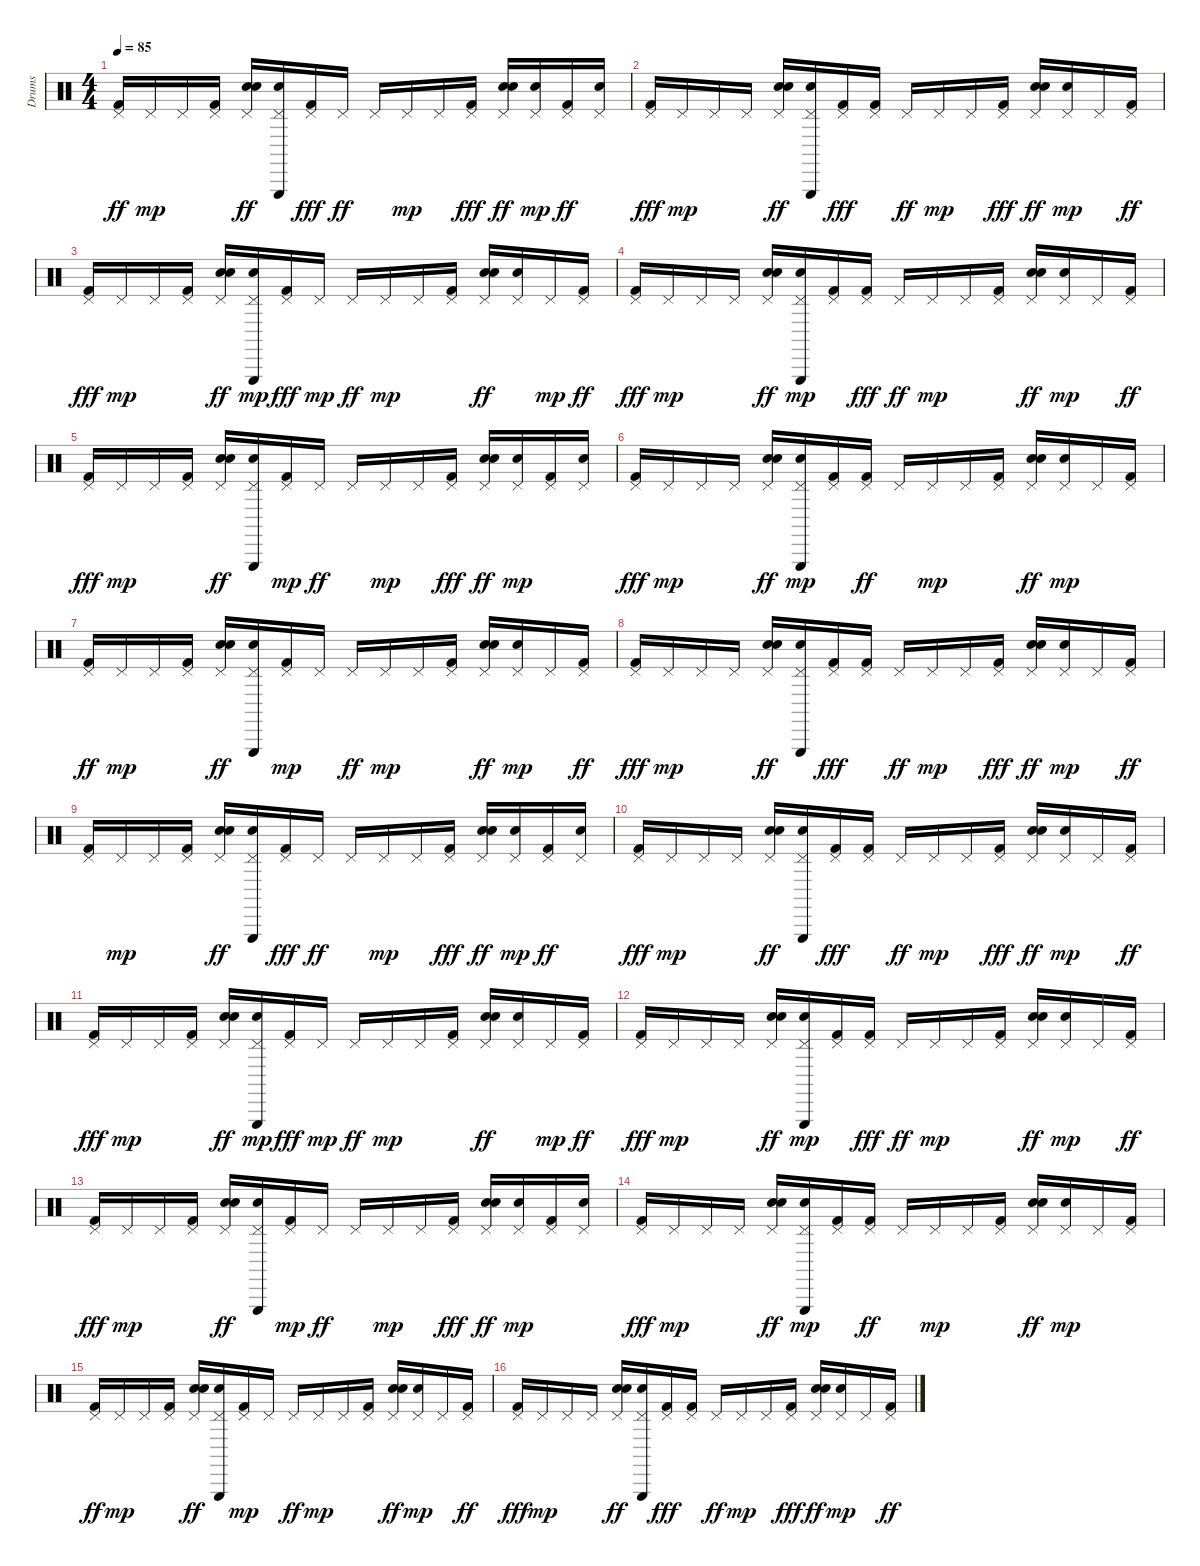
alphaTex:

\track ("Drums" "Drums") {instrument percussion}
\staff {score}
\articulation defaults
\ts (4 4)
\tempo 85
\clef neutral
\ks c
("Kick (hit) 2" "Pedal Hi-Hat (hit)").16{dy ff} "Pedal Hi-Hat (hit)".16{dy mp} "Pedal Hi-Hat (hit)".16 ("Kick (hit) 2" "Pedal Hi-Hat (hit)").16 ("Pedal Hi-Hat (hit)" "Snare (hit) 2" "Hand Clap (hit)").16{dy ff} ("Triangle (hit)" "Pedal Hi-Hat (hit)" "Snare (hit) 2").16 ("Pedal Hi-Hat (hit)" "Kick (hit) 2").16{dy fff} "Pedal Hi-Hat (hit)".16{dy ff} "Pedal Hi-Hat (hit)".16 "Pedal Hi-Hat (hit)".16{dy mp} "Pedal Hi-Hat (hit)".16 ("Pedal Hi-Hat (hit)" "Kick (hit) 2").16{dy fff} ("Hand Clap (hit)" "Snare (hit) 2" "Pedal Hi-Hat (hit)").16{dy ff} ("Snare (hit) 2" "Pedal Hi-Hat (hit)").16{dy mp} ("Pedal Hi-Hat (hit)" "Kick (hit) 2").16{dy ff} ("Pedal Hi-Hat (hit)" "Snare (hit) 2").16 |
("Pedal Hi-Hat (hit)" "Kick (hit) 2").16{dy fff} "Pedal Hi-Hat (hit)".16{dy mp} "Pedal Hi-Hat (hit)".16 "Pedal Hi-Hat (hit)".16 ("Pedal Hi-Hat (hit)" "Hand Clap (hit)" "Snare (hit) 2").16{dy ff} ("Pedal Hi-Hat (hit)" "Triangle (hit)" "Snare (hit) 2").16 ("Pedal Hi-Hat (hit)" "Kick (hit) 2").16{dy fff} ("Pedal Hi-Hat (hit)" "Kick (hit) 2").16 "Pedal Hi-Hat (hit)".16{dy ff} "Pedal Hi-Hat (hit)".16{dy mp} "Pedal Hi-Hat (hit)".16 ("Pedal Hi-Hat (hit)" "Kick (hit) 2").16{dy fff} ("Snare (hit) 2" "Pedal Hi-Hat (hit)" "Hand Clap (hit)").16{dy ff} ("Snare (hit) 2" "Pedal Hi-Hat (hit)").16{dy mp} "Pedal Hi-Hat (hit)".16 ("Pedal Hi-Hat (hit)" "Kick (hit) 2").16{dy ff} |
("Pedal Hi-Hat (hit)" "Kick (hit) 2").16{dy fff} "Pedal Hi-Hat (hit)".16{dy mp} "Pedal Hi-Hat (hit)".16 ("Kick (hit) 2" "Pedal Hi-Hat (hit)").16 ("Hand Clap (hit)" "Pedal Hi-Hat (hit)" "Snare (hit) 2").16{dy ff} ("Triangle (hit)" "Snare (hit) 2" "Pedal Hi-Hat (hit)").16{dy mp} ("Pedal Hi-Hat (hit)" "Kick (hit) 2").16{dy fff} "Pedal Hi-Hat (hit)".16{dy mp} "Pedal Hi-Hat (hit)".16{dy ff} "Pedal Hi-Hat (hit)".16{dy mp} "Pedal Hi-Hat (hit)".16 ("Kick (hit) 2" "Pedal Hi-Hat (hit)").16 ("Hand Clap (hit)" "Pedal Hi-Hat (hit)" "Snare (hit) 2").16{dy ff} ("Pedal Hi-Hat (hit)" "Snare (hit) 2").16 "Pedal Hi-Hat (hit)".16{dy mp} ("Pedal Hi-Hat (hit)" "Kick (hit) 2").16{dy ff} |
("Pedal Hi-Hat (hit)" "Kick (hit) 2").16{dy fff} "Pedal Hi-Hat (hit)".16{dy mp} "Pedal Hi-Hat (hit)".16 "Pedal Hi-Hat (hit)".16 ("Snare (hit) 2" "Pedal Hi-Hat (hit)" "Hand Clap (hit)").16{dy ff} ("Snare (hit) 2" "Pedal Hi-Hat (hit)" "Triangle (hit)").16{dy mp} ("Kick (hit) 2" "Pedal Hi-Hat (hit)").16 ("Pedal Hi-Hat (hit)" "Kick (hit) 2").16{dy fff} "Pedal Hi-Hat (hit)".16{dy ff} "Pedal Hi-Hat (hit)".16{dy mp} "Pedal Hi-Hat (hit)".16 ("Kick (hit) 2" "Pedal Hi-Hat (hit)").16 ("Pedal Hi-Hat (hit)" "Snare (hit) 2" "Hand Clap (hit)").16{dy ff} ("Snare (hit) 2" "Pedal Hi-Hat (hit)").16{dy mp} "Pedal Hi-Hat (hit)".16 ("Pedal Hi-Hat (hit)" "Kick (hit) 2").16{dy ff} |
("Pedal Hi-Hat (hit)" "Kick (hit) 2").16{dy fff} "Pedal Hi-Hat (hit)".16{dy mp} "Pedal Hi-Hat (hit)".16 ("Kick (hit) 2" "Pedal Hi-Hat (hit)").16 ("Snare (hit) 2" "Pedal Hi-Hat (hit)" "Hand Clap (hit)").16{dy ff} ("Triangle (hit)" "Pedal Hi-Hat (hit)" "Snare (hit) 2").16 ("Kick (hit) 2" "Pedal Hi-Hat (hit)").16{dy mp} "Pedal Hi-Hat (hit)".16{dy ff} "Pedal Hi-Hat (hit)".16 "Pedal Hi-Hat (hit)".16{dy mp} "Pedal Hi-Hat (hit)".16 ("Pedal Hi-Hat (hit)" "Kick (hit) 2").16{dy fff} ("Hand Clap (hit)" "Snare (hit) 2" "Pedal Hi-Hat (hit)").16{dy ff} ("Snare (hit) 2" "Pedal Hi-Hat (hit)").16{dy mp} ("Kick (hit) 2" "Pedal Hi-Hat (hit)").16 ("Snare (hit) 2" "Pedal Hi-Hat (hit)").16 |
("Pedal Hi-Hat (hit)" "Kick (hit) 2").16{dy fff} "Pedal Hi-Hat (hit)".16{dy mp} "Pedal Hi-Hat (hit)".16 "Pedal Hi-Hat (hit)".16 ("Snare (hit) 2" "Hand Clap (hit)" "Pedal Hi-Hat (hit)").16{dy ff} ("Snare (hit) 2" "Triangle (hit)" "Pedal Hi-Hat (hit)").16{dy mp} ("Kick (hit) 2" "Pedal Hi-Hat (hit)").16 ("Kick (hit) 2" "Pedal Hi-Hat (hit)").16{dy ff} "Pedal Hi-Hat (hit)".16 "Pedal Hi-Hat (hit)".16{dy mp} "Pedal Hi-Hat (hit)".16 ("Kick (hit) 2" "Pedal Hi-Hat (hit)").16 ("Hand Clap (hit)" "Snare (hit) 2" "Pedal Hi-Hat (hit)").16{dy ff} ("Snare (hit) 2" "Pedal Hi-Hat (hit)").16{dy mp} "Pedal Hi-Hat (hit)".16 ("Kick (hit) 2" "Pedal Hi-Hat (hit)").16 |
("Kick (hit) 2" "Pedal Hi-Hat (hit)").16{dy ff} "Pedal Hi-Hat (hit)".16{dy mp} "Pedal Hi-Hat (hit)".16 ("Kick (hit) 2" "Pedal Hi-Hat (hit)").16 ("Pedal Hi-Hat (hit)" "Hand Clap (hit)" "Snare (hit) 2").16{dy ff} ("Pedal Hi-Hat (hit)" "Triangle (hit)" "Snare (hit) 2").16 ("Kick (hit) 2" "Pedal Hi-Hat (hit)").16{dy mp} "Pedal Hi-Hat (hit)".16 "Pedal Hi-Hat (hit)".16{dy ff} "Pedal Hi-Hat (hit)".16{dy mp} "Pedal Hi-Hat (hit)".16 ("Kick (hit) 2" "Pedal Hi-Hat (hit)").16 ("Hand Clap (hit)" "Snare (hit) 2" "Pedal Hi-Hat (hit)").16{dy ff} ("Snare (hit) 2" "Pedal Hi-Hat (hit)").16{dy mp} "Pedal Hi-Hat (hit)".16 ("Pedal Hi-Hat (hit)" "Kick (hit) 2").16{dy ff} |
("Pedal Hi-Hat (hit)" "Kick (hit) 2").16{dy fff} "Pedal Hi-Hat (hit)".16{dy mp} "Pedal Hi-Hat (hit)".16 "Pedal Hi-Hat (hit)".16 ("Pedal Hi-Hat (hit)" "Hand Clap (hit)" "Snare (hit) 2").16{dy ff} ("Triangle (hit)" "Pedal Hi-Hat (hit)" "Snare (hit) 2").16 ("Pedal Hi-Hat (hit)" "Kick (hit) 2").16{dy fff} ("Pedal Hi-Hat (hit)" "Kick (hit) 2").16 "Pedal Hi-Hat (hit)".16{dy ff} "Pedal Hi-Hat (hit)".16{dy mp} "Pedal Hi-Hat (hit)".16 ("Pedal Hi-Hat (hit)" "Kick (hit) 2").16{dy fff} ("Snare (hit) 2" "Pedal Hi-Hat (hit)" "Hand Clap (hit)").16{dy ff} ("Snare (hit) 2" "Pedal Hi-Hat (hit)").16{dy mp} "Pedal Hi-Hat (hit)".16 ("Pedal Hi-Hat (hit)" "Kick (hit) 2").16{dy ff} |
("Kick (hit) 2" "Pedal Hi-Hat (hit)").16 "Pedal Hi-Hat (hit)".16{dy mp} "Pedal Hi-Hat (hit)".16 ("Kick (hit) 2" "Pedal Hi-Hat (hit)").16 ("Pedal Hi-Hat (hit)" "Snare (hit) 2" "Hand Clap (hit)").16{dy ff} ("Triangle (hit)" "Pedal Hi-Hat (hit)" "Snare (hit) 2").16 ("Pedal Hi-Hat (hit)" "Kick (hit) 2").16{dy fff} "Pedal Hi-Hat (hit)".16{dy ff} "Pedal Hi-Hat (hit)".16 "Pedal Hi-Hat (hit)".16{dy mp} "Pedal Hi-Hat (hit)".16 ("Pedal Hi-Hat (hit)" "Kick (hit) 2").16{dy fff} ("Hand Clap (hit)" "Snare (hit) 2" "Pedal Hi-Hat (hit)").16{dy ff} ("Snare (hit) 2" "Pedal Hi-Hat (hit)").16{dy mp} ("Pedal Hi-Hat (hit)" "Kick (hit) 2").16{dy ff} ("Pedal Hi-Hat (hit)" "Snare (hit) 2").16 |
("Pedal Hi-Hat (hit)" "Kick (hit) 2").16{dy fff} "Pedal Hi-Hat (hit)".16{dy mp} "Pedal Hi-Hat (hit)".16 "Pedal Hi-Hat (hit)".16 ("Pedal Hi-Hat (hit)" "Hand Clap (hit)" "Snare (hit) 2").16{dy ff} ("Pedal Hi-Hat (hit)" "Triangle (hit)" "Snare (hit) 2").16 ("Pedal Hi-Hat (hit)" "Kick (hit) 2").16{dy fff} ("Pedal Hi-Hat (hit)" "Kick (hit) 2").16 "Pedal Hi-Hat (hit)".16{dy ff} "Pedal Hi-Hat (hit)".16{dy mp} "Pedal Hi-Hat (hit)".16 ("Pedal Hi-Hat (hit)" "Kick (hit) 2").16{dy fff} ("Snare (hit) 2" "Pedal Hi-Hat (hit)" "Hand Clap (hit)").16{dy ff} ("Snare (hit) 2" "Pedal Hi-Hat (hit)").16{dy mp} "Pedal Hi-Hat (hit)".16 ("Pedal Hi-Hat (hit)" "Kick (hit) 2").16{dy ff} |
("Pedal Hi-Hat (hit)" "Kick (hit) 2").16{dy fff} "Pedal Hi-Hat (hit)".16{dy mp} "Pedal Hi-Hat (hit)".16 ("Kick (hit) 2" "Pedal Hi-Hat (hit)").16 ("Hand Clap (hit)" "Pedal Hi-Hat (hit)" "Snare (hit) 2").16{dy ff} ("Triangle (hit)" "Snare (hit) 2" "Pedal Hi-Hat (hit)").16{dy mp} ("Pedal Hi-Hat (hit)" "Kick (hit) 2").16{dy fff} "Pedal Hi-Hat (hit)".16{dy mp} "Pedal Hi-Hat (hit)".16{dy ff} "Pedal Hi-Hat (hit)".16{dy mp} "Pedal Hi-Hat (hit)".16 ("Kick (hit) 2" "Pedal Hi-Hat (hit)").16 ("Hand Clap (hit)" "Pedal Hi-Hat (hit)" "Snare (hit) 2").16{dy ff} ("Pedal Hi-Hat (hit)" "Snare (hit) 2").16 "Pedal Hi-Hat (hit)".16{dy mp} ("Pedal Hi-Hat (hit)" "Kick (hit) 2").16{dy ff} |
("Pedal Hi-Hat (hit)" "Kick (hit) 2").16{dy fff} "Pedal Hi-Hat (hit)".16{dy mp} "Pedal Hi-Hat (hit)".16 "Pedal Hi-Hat (hit)".16 ("Snare (hit) 2" "Pedal Hi-Hat (hit)" "Hand Clap (hit)").16{dy ff} ("Snare (hit) 2" "Pedal Hi-Hat (hit)" "Triangle (hit)").16{dy mp} ("Kick (hit) 2" "Pedal Hi-Hat (hit)").16 ("Pedal Hi-Hat (hit)" "Kick (hit) 2").16{dy fff} "Pedal Hi-Hat (hit)".16{dy ff} "Pedal Hi-Hat (hit)".16{dy mp} "Pedal Hi-Hat (hit)".16 ("Kick (hit) 2" "Pedal Hi-Hat (hit)").16 ("Pedal Hi-Hat (hit)" "Snare (hit) 2" "Hand Clap (hit)").16{dy ff} ("Snare (hit) 2" "Pedal Hi-Hat (hit)").16{dy mp} "Pedal Hi-Hat (hit)".16 ("Pedal Hi-Hat (hit)" "Kick (hit) 2").16{dy ff} |
("Pedal Hi-Hat (hit)" "Kick (hit) 2").16{dy fff} "Pedal Hi-Hat (hit)".16{dy mp} "Pedal Hi-Hat (hit)".16 ("Kick (hit) 2" "Pedal Hi-Hat (hit)").16 ("Snare (hit) 2" "Pedal Hi-Hat (hit)" "Hand Clap (hit)").16{dy ff} ("Triangle (hit)" "Pedal Hi-Hat (hit)" "Snare (hit) 2").16 ("Kick (hit) 2" "Pedal Hi-Hat (hit)").16{dy mp} "Pedal Hi-Hat (hit)".16{dy ff} "Pedal Hi-Hat (hit)".16 "Pedal Hi-Hat (hit)".16{dy mp} "Pedal Hi-Hat (hit)".16 ("Pedal Hi-Hat (hit)" "Kick (hit) 2").16{dy fff} ("Hand Clap (hit)" "Snare (hit) 2" "Pedal Hi-Hat (hit)").16{dy ff} ("Snare (hit) 2" "Pedal Hi-Hat (hit)").16{dy mp} ("Kick (hit) 2" "Pedal Hi-Hat (hit)").16 ("Snare (hit) 2" "Pedal Hi-Hat (hit)").16 |
("Pedal Hi-Hat (hit)" "Kick (hit) 2").16{dy fff} "Pedal Hi-Hat (hit)".16{dy mp} "Pedal Hi-Hat (hit)".16 "Pedal Hi-Hat (hit)".16 ("Snare (hit) 2" "Hand Clap (hit)" "Pedal Hi-Hat (hit)").16{dy ff} ("Snare (hit) 2" "Triangle (hit)" "Pedal Hi-Hat (hit)").16{dy mp} ("Kick (hit) 2" "Pedal Hi-Hat (hit)").16 ("Kick (hit) 2" "Pedal Hi-Hat (hit)").16{dy ff} "Pedal Hi-Hat (hit)".16 "Pedal Hi-Hat (hit)".16{dy mp} "Pedal Hi-Hat (hit)".16 ("Kick (hit) 2" "Pedal Hi-Hat (hit)").16 ("Hand Clap (hit)" "Snare (hit) 2" "Pedal Hi-Hat (hit)").16{dy ff} ("Snare (hit) 2" "Pedal Hi-Hat (hit)").16{dy mp} "Pedal Hi-Hat (hit)".16 ("Kick (hit) 2" "Pedal Hi-Hat (hit)").16 |
("Kick (hit) 2" "Pedal Hi-Hat (hit)").16{dy ff} "Pedal Hi-Hat (hit)".16{dy mp} "Pedal Hi-Hat (hit)".16 ("Kick (hit) 2" "Pedal Hi-Hat (hit)").16 ("Pedal Hi-Hat (hit)" "Hand Clap (hit)" "Snare (hit) 2").16{dy ff} ("Pedal Hi-Hat (hit)" "Triangle (hit)" "Snare (hit) 2").16 ("Kick (hit) 2" "Pedal Hi-Hat (hit)").16{dy mp} "Pedal Hi-Hat (hit)".16 "Pedal Hi-Hat (hit)".16{dy ff} "Pedal Hi-Hat (hit)".16{dy mp} "Pedal Hi-Hat (hit)".16 ("Kick (hit) 2" "Pedal Hi-Hat (hit)").16 ("Hand Clap (hit)" "Snare (hit) 2" "Pedal Hi-Hat (hit)").16{dy ff} ("Snare (hit) 2" "Pedal Hi-Hat (hit)").16{dy mp} "Pedal Hi-Hat (hit)".16 ("Pedal Hi-Hat (hit)" "Kick (hit) 2").16{dy ff} |
("Pedal Hi-Hat (hit)" "Kick (hit) 2").16{dy fff} "Pedal Hi-Hat (hit)".16{dy mp} "Pedal Hi-Hat (hit)".16 "Pedal Hi-Hat (hit)".16 ("Pedal Hi-Hat (hit)" "Hand Clap (hit)" "Snare (hit) 2").16{dy ff} ("Triangle (hit)" "Pedal Hi-Hat (hit)" "Snare (hit) 2").16 ("Pedal Hi-Hat (hit)" "Kick (hit) 2").16{dy fff} ("Pedal Hi-Hat (hit)" "Kick (hit) 2").16 "Pedal Hi-Hat (hit)".16{dy ff} "Pedal Hi-Hat (hit)".16{dy mp} "Pedal Hi-Hat (hit)".16 ("Pedal Hi-Hat (hit)" "Kick (hit) 2").16{dy fff} ("Snare (hit) 2" "Pedal Hi-Hat (hit)" "Hand Clap (hit)").16{dy ff} ("Snare (hit) 2" "Pedal Hi-Hat (hit)").16{dy mp} "Pedal Hi-Hat (hit)".16 ("Pedal Hi-Hat (hit)" "Kick (hit) 2").16{dy ff}
